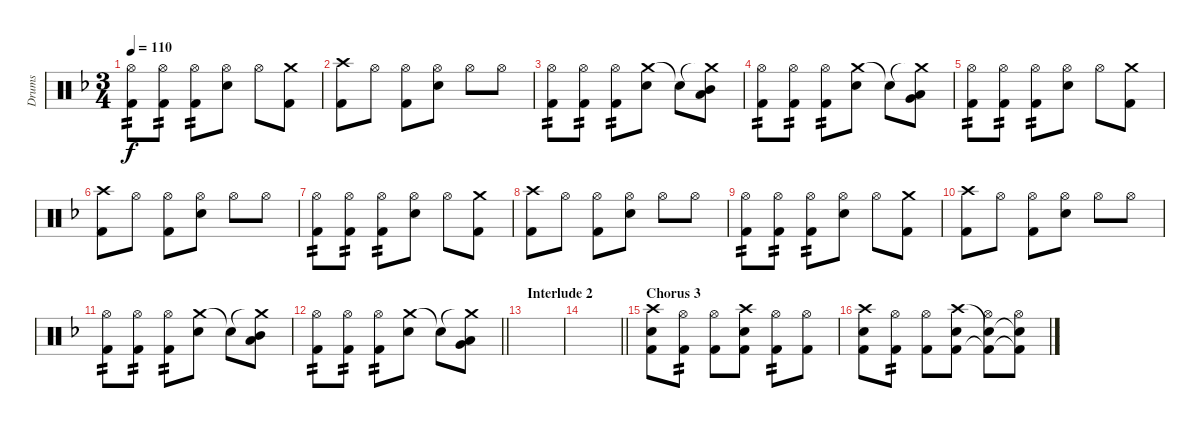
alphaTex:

\track ("Drums" "Drums") {instrument percussion}
\staff {score}
\articulation defaults
\ts (3 4)
\tempo 110
\clef neutral
\ks dminor
("Hi-Hat (open)" "Kick (hit) 2").8{tp 2 dy f} ("Hi-Hat (open)" "Kick (hit) 2").8{tp 2} ("Hi-Hat (open)" "Kick (hit) 2").8{tp 2} ("Hi-Hat (open)" "Snare (hit) 2").8 "Hi-Hat (open)".8 ("Crash medium (hit)" "Kick (hit) 2").8 |
("Crash high (hit)" "Kick (hit) 2").8 "Hi-Hat (open)".8 ("Hi-Hat (open)" "Kick (hit) 2").8 ("Hi-Hat (open)" "Snare (hit) 2").8 "Hi-Hat (open)".8 "Hi-Hat (open)".8 |
("Hi-Hat (open)" "Kick (hit) 2").8{tp 2} ("Hi-Hat (open)" "Kick (hit) 2").8{tp 2} ("Hi-Hat (open)" "Kick (hit) 2").8{tp 2} ("Crash medium (hit)" "Snare (hit) 2").8 "Snare (hit)"{t}.8 ("Crash medium (hit)"{t} "Mid Tom (hit)" "Low Tom (hit)").8 |
("Hi-Hat (open)" "Kick (hit) 2").8{tp 2} ("Hi-Hat (open)" "Kick (hit) 2").8{tp 2} ("Hi-Hat (open)" "Kick (hit) 2").8{tp 2} ("Crash medium (hit)" "Snare (hit) 2").8 "Snare (hit)"{t}.8 ("Crash medium (hit)"{t} "Low Tom (hit)" "Very Low Tom (hit)").8 |
("Hi-Hat (open)" "Kick (hit) 2").8{tp 2} ("Hi-Hat (open)" "Kick (hit) 2").8{tp 2} ("Hi-Hat (open)" "Kick (hit) 2").8{tp 2} ("Hi-Hat (open)" "Snare (hit) 2").8 "Hi-Hat (open)".8 ("Crash medium (hit)" "Kick (hit) 2").8 |
("Crash high (hit)" "Kick (hit) 2").8 "Hi-Hat (open)".8 ("Hi-Hat (open)" "Kick (hit) 2").8 ("Hi-Hat (open)" "Snare (hit) 2").8 "Hi-Hat (open)".8 "Hi-Hat (open)".8 |
("Hi-Hat (open)" "Kick (hit) 2").8{tp 2} ("Hi-Hat (open)" "Kick (hit) 2").8{tp 2} ("Hi-Hat (open)" "Kick (hit) 2").8{tp 2} ("Hi-Hat (open)" "Snare (hit) 2").8 "Hi-Hat (open)".8 ("Crash medium (hit)" "Kick (hit) 2").8 |
("Crash high (hit)" "Kick (hit) 2").8 "Hi-Hat (open)".8 ("Hi-Hat (open)" "Kick (hit) 2").8 ("Hi-Hat (open)" "Snare (hit) 2").8 "Hi-Hat (open)".8 "Hi-Hat (open)".8 |
("Hi-Hat (open)" "Kick (hit) 2").8{tp 2} ("Hi-Hat (open)" "Kick (hit) 2").8{tp 2} ("Hi-Hat (open)" "Kick (hit) 2").8{tp 2} ("Hi-Hat (open)" "Snare (hit) 2").8 "Hi-Hat (open)".8 ("Crash medium (hit)" "Kick (hit) 2").8 |
("Crash high (hit)" "Kick (hit) 2").8 "Hi-Hat (open)".8 ("Hi-Hat (open)" "Kick (hit) 2").8 ("Hi-Hat (open)" "Snare (hit) 2").8 "Hi-Hat (open)".8 "Hi-Hat (open)".8 |
("Hi-Hat (open)" "Kick (hit) 2").8{tp 2} ("Hi-Hat (open)" "Kick (hit) 2").8{tp 2} ("Hi-Hat (open)" "Kick (hit) 2").8{tp 2} ("Crash medium (hit)" "Snare (hit) 2").8 "Snare (hit)"{t}.8 ("Crash medium (hit)"{t} "Low Tom (hit)" "Mid Tom (hit)").8 |
\barLineRight lightlight
("Hi-Hat (open)" "Kick (hit) 2").8{tp 2} ("Hi-Hat (open)" "Kick (hit) 2").8{tp 2} ("Hi-Hat (open)" "Kick (hit) 2").8{tp 2} ("Crash medium (hit)" "Snare (hit) 2").8 "Snare (hit)"{t}.8 ("Crash medium (hit)"{t} "Low Tom (hit)" "Very Low Tom (hit)").8 |
\section ("" "Interlude 2")
|
\barLineRight lightlight
|
\section ("" "Chorus 3")
("Crash high (hit)" "Snare (hit) 2" "Kick (hit) 2").8 ("Hi-Hat (open)" "Kick (hit) 2").8{tp 2} ("Hi-Hat (open)" "Kick (hit) 2").8 ("Crash high (hit)" "Snare (hit) 2" "Kick (hit) 2").8 ("Hi-Hat (open)" "Kick (hit) 2").8{tp 2} ("Hi-Hat (open)" "Kick (hit) 2").8 |
("Crash high (hit)" "Snare (hit) 2" "Kick (hit) 2").8 ("Hi-Hat (open)" "Kick (hit) 2").8{tp 2} ("Hi-Hat (open)" "Kick (hit) 2").8 ("Crash high (hit)" "Snare (hit) 2" "Kick (hit) 2").8 ("Snare (hit)"{t} "Hi-Hat (open)" "Kick (hit) 2"{t}).8 ("Snare (hit)"{t} "Hi-Hat (open)" "Kick (hit) 2"{t}).8
